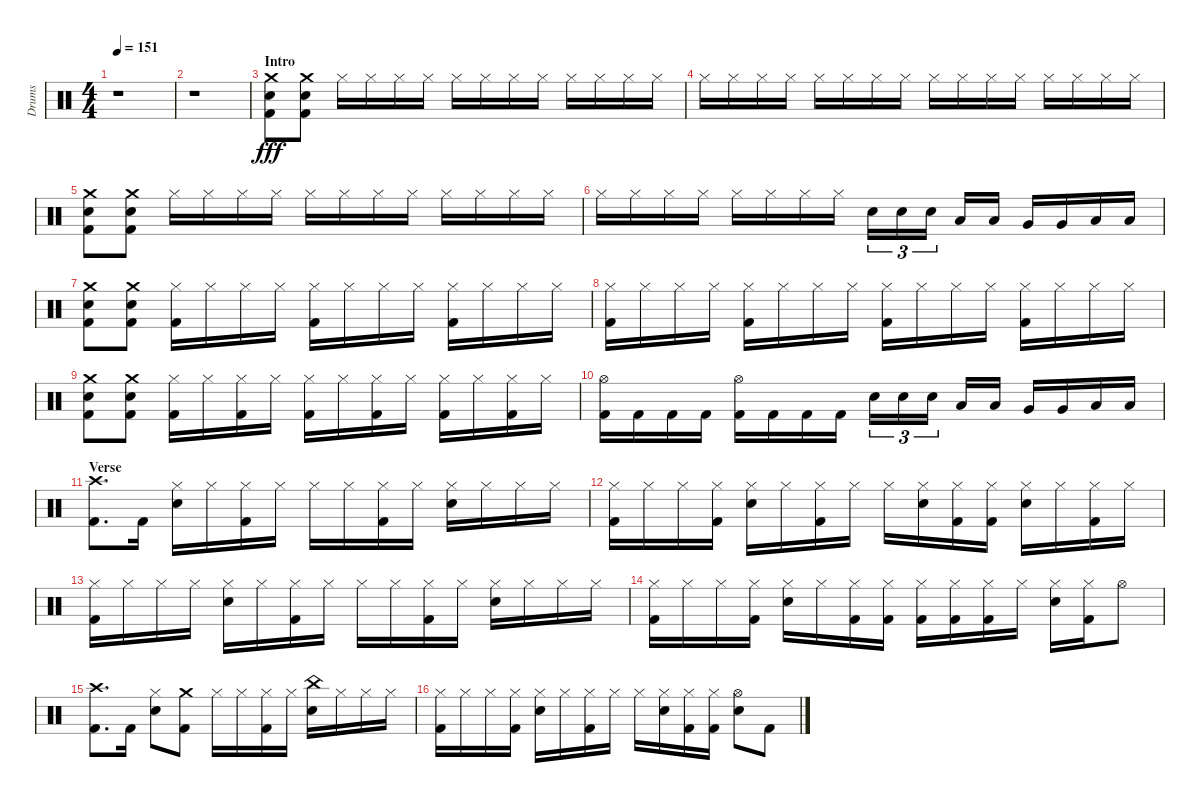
\track ("Drums" "Drums") {instrument percussion}
\staff {score}
\articulation defaults
\ts (4 4)
\tempo 151
\clef neutral
\ks aminor
r.1{dy fff} |
r.1 |
\section ("" "Intro")
("Kick (hit) 2" "Snare (hit) 2" "Crash medium (hit)").8 ("Kick (hit) 2" "Snare (hit) 2" "Crash medium (hit)").8 "Hi-Hat (closed)".16 "Hi-Hat (closed)".16 "Hi-Hat (closed)".16 "Hi-Hat (closed)".16 "Hi-Hat (closed)".16 "Hi-Hat (closed)".16 "Hi-Hat (closed)".16 "Hi-Hat (closed)".16 "Hi-Hat (closed)".16 "Hi-Hat (closed)".16 "Hi-Hat (closed)".16 "Hi-Hat (closed)".16 |
"Hi-Hat (closed)".16 "Hi-Hat (closed)".16 "Hi-Hat (closed)".16 "Hi-Hat (closed)".16 "Hi-Hat (closed)".16 "Hi-Hat (closed)".16 "Hi-Hat (closed)".16 "Hi-Hat (closed)".16 "Hi-Hat (closed)".16 "Hi-Hat (closed)".16 "Hi-Hat (closed)".16 "Hi-Hat (closed)".16 "Hi-Hat (closed)".16 "Hi-Hat (closed)".16 "Hi-Hat (closed)".16 "Hi-Hat (closed)".16 |
("Kick (hit) 2" "Snare (hit) 2" "Crash medium (hit)").8 ("Kick (hit) 2" "Snare (hit) 2" "Crash medium (hit)").8 "Hi-Hat (closed)".16 "Hi-Hat (closed)".16 "Hi-Hat (closed)".16 "Hi-Hat (closed)".16 "Hi-Hat (closed)".16 "Hi-Hat (closed)".16 "Hi-Hat (closed)".16 "Hi-Hat (closed)".16 "Hi-Hat (closed)".16 "Hi-Hat (closed)".16 "Hi-Hat (closed)".16 "Hi-Hat (closed)".16 |
"Hi-Hat (closed)".16 "Hi-Hat (closed)".16 "Hi-Hat (closed)".16 "Hi-Hat (closed)".16 "Hi-Hat (closed)".16 "Hi-Hat (closed)".16 "Hi-Hat (closed)".16 "Hi-Hat (closed)".16 "Snare (hit) 2".16{tu (3 2)} "Snare (hit) 2".16{tu (3 2)} "Snare (hit) 2".16{tu (3 2)} "Low Tom (hit)".16 "Low Tom (hit)".16 "Very Low Tom (hit)".16 "Very Low Tom (hit)".16 "Low Floor Tom (hit)".16 "Low Floor Tom (hit)".16 |
("Kick (hit) 2" "Snare (hit) 2" "Crash medium (hit)").8 ("Kick (hit) 2" "Snare (hit) 2" "Crash medium (hit)").8 ("Kick (hit) 2" "Hi-Hat (closed)").16 "Hi-Hat (closed)".16 "Hi-Hat (closed)".16 "Hi-Hat (closed)".16 ("Kick (hit) 2" "Hi-Hat (closed)").16 "Hi-Hat (closed)".16 "Hi-Hat (closed)".16 "Hi-Hat (closed)".16 ("Kick (hit) 2" "Hi-Hat (closed)").16 "Hi-Hat (closed)".16 "Hi-Hat (closed)".16 "Hi-Hat (closed)".16 |
("Kick (hit) 2" "Hi-Hat (closed)").16 "Hi-Hat (closed)".16 "Hi-Hat (closed)".16 "Hi-Hat (closed)".16 ("Kick (hit) 2" "Hi-Hat (closed)").16 "Hi-Hat (closed)".16 "Hi-Hat (closed)".16 "Hi-Hat (closed)".16 ("Kick (hit) 2" "Hi-Hat (closed)").16 "Hi-Hat (closed)".16 "Hi-Hat (closed)".16 "Hi-Hat (closed)".16 ("Kick (hit) 2" "Hi-Hat (closed)").16 "Hi-Hat (closed)".16 "Hi-Hat (closed)".16 "Hi-Hat (closed)".16 |
("Snare (hit) 2" "Kick (hit) 2" "Crash medium (hit)").8 ("Kick (hit) 2" "Snare (hit) 2" "Crash medium (hit)").8 ("Kick (hit) 2" "Hi-Hat (closed)").16 "Hi-Hat (closed)".16 ("Kick (hit) 2" "Hi-Hat (closed)").16 "Hi-Hat (closed)".16 ("Kick (hit) 2" "Hi-Hat (closed)").16 "Hi-Hat (closed)".16 ("Kick (hit) 2" "Hi-Hat (closed)").16 "Hi-Hat (closed)".16 ("Kick (hit) 2" "Hi-Hat (closed)").16 "Hi-Hat (closed)".16 ("Kick (hit) 2" "Hi-Hat (closed)").16 "Hi-Hat (closed)".16 |
("Kick (hit) 2" "Hi-Hat (open)").16 "Kick (hit) 2".16 "Kick (hit) 2".16 "Kick (hit) 2".16 ("Kick (hit) 2" "Hi-Hat (open)").16 "Kick (hit) 2".16 "Kick (hit) 2".16 "Kick (hit) 2".16 "Snare (hit) 2".16{tu (3 2)} "Snare (hit) 2".16{tu (3 2)} "Snare (hit) 2".16{tu (3 2)} "Low Tom (hit)".16 "Low Tom (hit)".16 "Very Low Tom (hit)".16 "Very Low Tom (hit)".16 "Low Floor Tom (hit)".16 "Low Floor Tom (hit)".16 |
\section ("" "Verse")
("Kick (hit) 2" "Crash high (hit)").8{d} "Kick (hit) 2".16 ("Snare (hit) 2" "Hi-Hat (closed)").16 "Hi-Hat (closed)".16 ("Kick (hit) 2" "Hi-Hat (closed)").16 "Hi-Hat (closed)".16 "Hi-Hat (closed)".16 "Hi-Hat (closed)".16 ("Kick (hit) 2" "Hi-Hat (closed)").16 "Hi-Hat (closed)".16 ("Snare (hit) 2" "Hi-Hat (closed)").16 "Hi-Hat (closed)".16 "Hi-Hat (closed)".16 "Hi-Hat (closed)".16 |
("Kick (hit) 2" "Hi-Hat (closed)").16 "Hi-Hat (closed)".16 "Hi-Hat (closed)".16 ("Kick (hit) 2" "Hi-Hat (closed)").16 ("Snare (hit) 2" "Hi-Hat (closed)").16 "Hi-Hat (closed)".16 ("Kick (hit) 2" "Hi-Hat (closed)").16 "Hi-Hat (closed)".16 "Hi-Hat (closed)".16 ("Snare (hit) 2" "Hi-Hat (closed)").16 ("Kick (hit) 2" "Hi-Hat (closed)").16 ("Kick (hit) 2" "Hi-Hat (closed)").16 ("Snare (hit) 2" "Hi-Hat (closed)").16 "Hi-Hat (closed)".16 ("Kick (hit) 2" "Hi-Hat (closed)").16 "Hi-Hat (closed)".16 |
("Kick (hit) 2" "Hi-Hat (closed)").16 "Hi-Hat (closed)".16 "Hi-Hat (closed)".16 "Hi-Hat (closed)".16 ("Snare (hit) 2" "Hi-Hat (closed)").16 "Hi-Hat (closed)".16 ("Kick (hit) 2" "Hi-Hat (closed)").16 "Hi-Hat (closed)".16 "Hi-Hat (closed)".16 "Hi-Hat (closed)".16 ("Kick (hit) 2" "Hi-Hat (closed)").16 "Hi-Hat (closed)".16 ("Snare (hit) 2" "Hi-Hat (closed)").16 "Hi-Hat (closed)".16 "Hi-Hat (closed)".16 "Hi-Hat (closed)".16 |
("Kick (hit) 2" "Hi-Hat (closed)").16 "Hi-Hat (closed)".16 "Hi-Hat (closed)".16 ("Kick (hit) 2" "Hi-Hat (closed)").16 ("Snare (hit) 2" "Hi-Hat (closed)").16 "Hi-Hat (closed)".16 ("Kick (hit) 2" "Hi-Hat (closed)").16 ("Kick (hit) 2" "Hi-Hat (closed)").16 ("Kick (hit) 2" "Hi-Hat (closed)").16 ("Kick (hit) 2" "Hi-Hat (closed)").16 ("Kick (hit) 2" "Hi-Hat (closed)").16 "Hi-Hat (closed)".16 ("Snare (hit) 2" "Hi-Hat (closed)").16 ("Kick (hit) 2" "Hi-Hat (closed)").16 "Hi-Hat (open)".8 |
("Kick (hit) 2" "Crash high (hit)").8{d} "Kick (hit) 2".16 ("Snare (hit) 2" "Hi-Hat (closed)").8 ("Kick (hit) 2" "Crash medium (hit)").8 "Hi-Hat (closed)".16 "Hi-Hat (closed)".16 ("Kick (hit) 2" "Hi-Hat (closed)").16 "Hi-Hat (closed)".16 ("Snare (hit) 2" "China (hit)").16 "Hi-Hat (closed)".16 "Hi-Hat (closed)".16 "Hi-Hat (closed)".16 |
("Kick (hit) 2" "Hi-Hat (closed)").16 "Hi-Hat (closed)".16 "Hi-Hat (closed)".16 ("Kick (hit) 2" "Hi-Hat (closed)").16 ("Snare (hit) 2" "Hi-Hat (closed)").16 "Hi-Hat (closed)".16 ("Kick (hit) 2" "Hi-Hat (closed)").16 "Hi-Hat (closed)".16 "Hi-Hat (closed)".16 ("Snare (hit) 2" "Hi-Hat (closed)").16 ("Kick (hit) 2" "Hi-Hat (closed)").16 ("Kick (hit) 2" "Hi-Hat (closed)").16 ("Snare (hit) 2" "Hi-Hat (open)").8 "Kick (hit) 2".8
